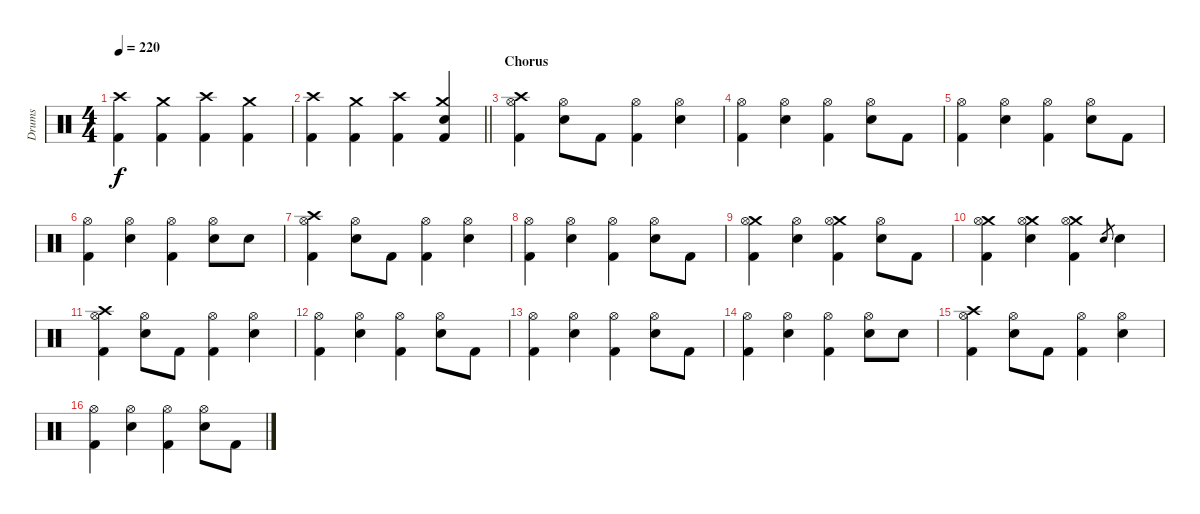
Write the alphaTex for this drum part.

\track ("Drums" "Drums") {instrument percussion}
\staff {score}
\articulation defaults
\ts (4 4)
\tempo 220
\clef neutral
\ks c
("Crash high (hit)" "Kick (hit) 2").4{dy f} ("Crash medium (hit)" "Kick (hit) 2").4 ("Crash high (hit)" "Kick (hit) 2").4 ("Crash medium (hit)" "Kick (hit) 2").4 |
\barLineRight lightlight
("Crash high (hit)" "Kick (hit) 2").4 ("Crash medium (hit)" "Kick (hit) 2").4 ("Crash high (hit)" "Kick (hit) 2").4 ("Crash medium (hit)" "Snare (hit) 2" "Kick (hit) 2").4 |
\section ("" "Chorus")
("Crash high (hit)" "Hi-Hat (open)" "Kick (hit) 2").4 ("Hi-Hat (open)" "Snare (hit) 2").8 "Kick (hit) 2".8 ("Hi-Hat (open)" "Kick (hit) 2").4 ("Hi-Hat (open)" "Snare (hit) 2").4 |
("Hi-Hat (open)" "Kick (hit) 2").4 ("Hi-Hat (open)" "Snare (hit) 2").4 ("Hi-Hat (open)" "Kick (hit) 2").4 ("Hi-Hat (open)" "Snare (hit) 2").8 "Kick (hit) 2".8 |
("Hi-Hat (open)" "Kick (hit) 2").4 ("Hi-Hat (open)" "Snare (hit) 2").4 ("Hi-Hat (open)" "Kick (hit) 2").4 ("Hi-Hat (open)" "Snare (hit) 2").8 "Kick (hit) 2".8 |
("Hi-Hat (open)" "Kick (hit) 2").4 ("Hi-Hat (open)" "Snare (hit) 2").4 ("Hi-Hat (open)" "Kick (hit) 2").4 ("Hi-Hat (open)" "Snare (hit) 2").8 "Snare (hit) 2".8 |
("Crash high (hit)" "Hi-Hat (open)" "Kick (hit) 2").4 ("Hi-Hat (open)" "Snare (hit) 2").8 "Kick (hit) 2".8 ("Hi-Hat (open)" "Kick (hit) 2").4 ("Hi-Hat (open)" "Snare (hit) 2").4 |
("Hi-Hat (open)" "Kick (hit) 2").4 ("Hi-Hat (open)" "Snare (hit) 2").4 ("Hi-Hat (open)" "Kick (hit) 2").4 ("Hi-Hat (open)" "Snare (hit) 2").8 "Kick (hit) 2".8 |
("Crash medium (hit)" "Hi-Hat (open)" "Kick (hit) 2").4 ("Hi-Hat (open)" "Snare (hit) 2").4 ("Crash medium (hit)" "Hi-Hat (open)" "Kick (hit) 2").4 ("Hi-Hat (open)" "Snare (hit) 2").8 "Kick (hit) 2".8 |
("Crash medium (hit)" "Hi-Hat (open)" "Kick (hit) 2").4 ("Crash medium (hit)" "Hi-Hat (open)" "Snare (hit) 2").4 ("Crash medium (hit)" "Hi-Hat (open)" "Kick (hit) 2").4 "Snare (hit) 2".8{gr} "Snare (hit) 2".4 |
("Crash high (hit)" "Hi-Hat (open)" "Kick (hit) 2").4 ("Hi-Hat (open)" "Snare (hit) 2").8 "Kick (hit) 2".8 ("Hi-Hat (open)" "Kick (hit) 2").4 ("Hi-Hat (open)" "Snare (hit) 2").4 |
("Hi-Hat (open)" "Kick (hit) 2").4 ("Hi-Hat (open)" "Snare (hit) 2").4 ("Hi-Hat (open)" "Kick (hit) 2").4 ("Hi-Hat (open)" "Snare (hit) 2").8 "Kick (hit) 2".8 |
("Hi-Hat (open)" "Kick (hit) 2").4 ("Hi-Hat (open)" "Snare (hit) 2").4 ("Hi-Hat (open)" "Kick (hit) 2").4 ("Hi-Hat (open)" "Snare (hit) 2").8 "Kick (hit) 2".8 |
("Hi-Hat (open)" "Kick (hit) 2").4 ("Hi-Hat (open)" "Snare (hit) 2").4 ("Hi-Hat (open)" "Kick (hit) 2").4 ("Hi-Hat (open)" "Snare (hit) 2").8 "Snare (hit) 2".8 |
("Crash high (hit)" "Hi-Hat (open)" "Kick (hit) 2").4 ("Hi-Hat (open)" "Snare (hit) 2").8 "Kick (hit) 2".8 ("Hi-Hat (open)" "Kick (hit) 2").4 ("Hi-Hat (open)" "Snare (hit) 2").4 |
("Hi-Hat (open)" "Kick (hit) 2").4 ("Hi-Hat (open)" "Snare (hit) 2").4 ("Hi-Hat (open)" "Kick (hit) 2").4 ("Hi-Hat (open)" "Snare (hit) 2").8 "Kick (hit) 2".8
